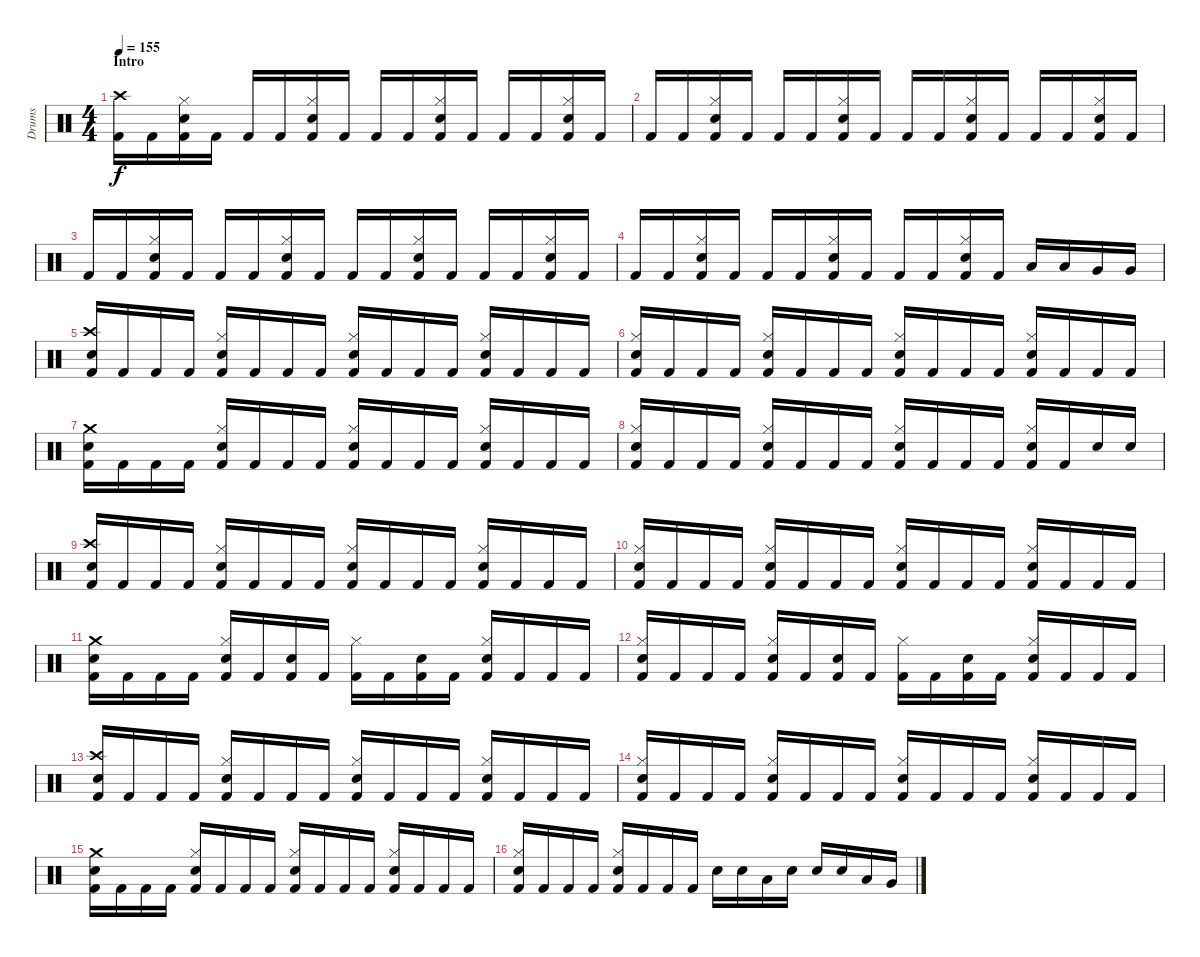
\track ("Drums" "Drums") {instrument percussion}
\staff {score}
\articulation defaults
\ts (4 4)
\section ("" "Intro")
\tempo 155
\clef neutral
\ks c
("Kick (hit) 2" "Crash high (hit)").16{dy f} "Kick (hit) 2".16 ("Kick (hit) 2" "Hi-Hat (closed)" "Electric Snare (hit)").16 "Kick (hit) 2".16 "Kick (hit) 2".16 "Kick (hit) 2".16 ("Kick (hit) 2" "Hi-Hat (closed)" "Electric Snare (hit)").16 "Kick (hit) 2".16 "Kick (hit) 2".16 "Kick (hit) 2".16 ("Kick (hit) 2" "Hi-Hat (closed)" "Electric Snare (hit)").16 "Kick (hit) 2".16 "Kick (hit) 2".16 "Kick (hit) 2".16 ("Kick (hit) 2" "Hi-Hat (closed)" "Electric Snare (hit)").16 "Kick (hit) 2".16 |
"Kick (hit) 2".16 "Kick (hit) 2".16 ("Kick (hit) 2" "Hi-Hat (closed)" "Electric Snare (hit)").16 "Kick (hit) 2".16 "Kick (hit) 2".16 "Kick (hit) 2".16 ("Kick (hit) 2" "Hi-Hat (closed)" "Electric Snare (hit)").16 "Kick (hit) 2".16 "Kick (hit) 2".16 "Kick (hit) 2".16 ("Kick (hit) 2" "Hi-Hat (closed)" "Electric Snare (hit)").16 "Kick (hit) 2".16 "Kick (hit) 2".16 "Kick (hit) 2".16 ("Kick (hit) 2" "Hi-Hat (closed)" "Electric Snare (hit)").16 "Kick (hit) 2".16 |
"Kick (hit) 2".16 "Kick (hit) 2".16 ("Kick (hit) 2" "Hi-Hat (closed)" "Electric Snare (hit)").16 "Kick (hit) 2".16 "Kick (hit) 2".16 "Kick (hit) 2".16 ("Kick (hit) 2" "Hi-Hat (closed)" "Electric Snare (hit)").16 "Kick (hit) 2".16 "Kick (hit) 2".16 "Kick (hit) 2".16 ("Kick (hit) 2" "Hi-Hat (closed)" "Electric Snare (hit)").16 "Kick (hit) 2".16 "Kick (hit) 2".16 "Kick (hit) 2".16 ("Kick (hit) 2" "Hi-Hat (closed)" "Electric Snare (hit)").16 "Kick (hit) 2".16 |
"Kick (hit) 2".16 "Kick (hit) 2".16 ("Kick (hit) 2" "Hi-Hat (closed)" "Electric Snare (hit)").16 "Kick (hit) 2".16 "Kick (hit) 2".16 "Kick (hit) 2".16 ("Kick (hit) 2" "Hi-Hat (closed)" "Electric Snare (hit)").16 "Kick (hit) 2".16 "Kick (hit) 2".16 "Kick (hit) 2".16 ("Kick (hit) 2" "Hi-Hat (closed)" "Electric Snare (hit)").16 "Kick (hit) 2".16 "Low Tom (hit)".16 "Low Tom (hit)".16 "Very Low Tom (hit)".16 "Very Low Tom (hit)".16 |
("Kick (hit) 2" "Crash high (hit)" "Electric Snare (hit)").16 "Kick (hit) 2".16 "Kick (hit) 2".16 "Kick (hit) 2".16 ("Kick (hit) 2" "Hi-Hat (closed)" "Electric Snare (hit)").16 "Kick (hit) 2".16 "Kick (hit) 2".16 "Kick (hit) 2".16 ("Kick (hit) 2" "Hi-Hat (closed)" "Electric Snare (hit)").16 "Kick (hit) 2".16 "Kick (hit) 2".16 "Kick (hit) 2".16 ("Kick (hit) 2" "Hi-Hat (closed)" "Electric Snare (hit)").16 "Kick (hit) 2".16 "Kick (hit) 2".16 "Kick (hit) 2".16 |
("Kick (hit) 2" "Hi-Hat (closed)" "Electric Snare (hit)").16 "Kick (hit) 2".16 "Kick (hit) 2".16 "Kick (hit) 2".16 ("Kick (hit) 2" "Hi-Hat (closed)" "Electric Snare (hit)").16 "Kick (hit) 2".16 "Kick (hit) 2".16 "Kick (hit) 2".16 ("Kick (hit) 2" "Hi-Hat (closed)" "Electric Snare (hit)").16 "Kick (hit) 2".16 "Kick (hit) 2".16 "Kick (hit) 2".16 ("Kick (hit) 2" "Hi-Hat (closed)" "Electric Snare (hit)").16 "Kick (hit) 2".16 "Kick (hit) 2".16 "Kick (hit) 2".16 |
("Kick (hit) 2" "Crash medium (hit)" "Electric Snare (hit)").16 "Kick (hit) 2".16 "Kick (hit) 2".16 "Kick (hit) 2".16 ("Kick (hit) 2" "Hi-Hat (closed)" "Electric Snare (hit)").16 "Kick (hit) 2".16 "Kick (hit) 2".16 "Kick (hit) 2".16 ("Kick (hit) 2" "Hi-Hat (closed)" "Electric Snare (hit)").16 "Kick (hit) 2".16 "Kick (hit) 2".16 "Kick (hit) 2".16 ("Kick (hit) 2" "Hi-Hat (closed)" "Electric Snare (hit)").16 "Kick (hit) 2".16 "Kick (hit) 2".16 "Kick (hit) 2".16 |
("Kick (hit) 2" "Hi-Hat (closed)" "Electric Snare (hit)").16 "Kick (hit) 2".16 "Kick (hit) 2".16 "Kick (hit) 2".16 ("Kick (hit) 2" "Hi-Hat (closed)" "Electric Snare (hit)").16 "Kick (hit) 2".16 "Kick (hit) 2".16 "Kick (hit) 2".16 ("Kick (hit) 2" "Hi-Hat (closed)" "Electric Snare (hit)").16 "Kick (hit) 2".16 "Kick (hit) 2".16 "Kick (hit) 2".16 ("Kick (hit) 2" "Hi-Hat (closed)" "Electric Snare (hit)").16 "Kick (hit) 2".16 "Electric Snare (hit)".16 "Electric Snare (hit)".16 |
("Kick (hit) 2" "Crash high (hit)" "Electric Snare (hit)").16 "Kick (hit) 2".16 "Kick (hit) 2".16 "Kick (hit) 2".16 ("Kick (hit) 2" "Hi-Hat (closed)" "Electric Snare (hit)").16 "Kick (hit) 2".16 "Kick (hit) 2".16 "Kick (hit) 2".16 ("Kick (hit) 2" "Hi-Hat (closed)" "Electric Snare (hit)").16 "Kick (hit) 2".16 "Kick (hit) 2".16 "Kick (hit) 2".16 ("Kick (hit) 2" "Hi-Hat (closed)" "Electric Snare (hit)").16 "Kick (hit) 2".16 "Kick (hit) 2".16 "Kick (hit) 2".16 |
("Kick (hit) 2" "Hi-Hat (closed)" "Electric Snare (hit)").16 "Kick (hit) 2".16 "Kick (hit) 2".16 "Kick (hit) 2".16 ("Kick (hit) 2" "Hi-Hat (closed)" "Electric Snare (hit)").16 "Kick (hit) 2".16 "Kick (hit) 2".16 "Kick (hit) 2".16 ("Kick (hit) 2" "Hi-Hat (closed)" "Electric Snare (hit)").16 "Kick (hit) 2".16 "Kick (hit) 2".16 "Kick (hit) 2".16 ("Kick (hit) 2" "Hi-Hat (closed)" "Electric Snare (hit)").16 "Kick (hit) 2".16 "Kick (hit) 2".16 "Kick (hit) 2".16 |
("Kick (hit) 2" "Crash medium (hit)" "Electric Snare (hit)").16 "Kick (hit) 2".16 "Kick (hit) 2".16 "Kick (hit) 2".16 ("Kick (hit) 2" "Hi-Hat (closed)" "Electric Snare (hit)").16 "Kick (hit) 2".16 ("Kick (hit) 2" "Electric Snare (hit)").16 "Kick (hit) 2".16 ("Kick (hit) 2" "Hi-Hat (closed)").16 "Kick (hit) 2".16 ("Kick (hit) 2" "Electric Snare (hit)").16 "Kick (hit) 2".16 ("Kick (hit) 2" "Hi-Hat (closed)" "Electric Snare (hit)").16 "Kick (hit) 2".16 "Kick (hit) 2".16 "Kick (hit) 2".16 |
("Kick (hit) 2" "Hi-Hat (closed)" "Electric Snare (hit)").16 "Kick (hit) 2".16 "Kick (hit) 2".16 "Kick (hit) 2".16 ("Kick (hit) 2" "Hi-Hat (closed)" "Electric Snare (hit)").16 "Kick (hit) 2".16 ("Kick (hit) 2" "Electric Snare (hit)").16 "Kick (hit) 2".16 ("Kick (hit) 2" "Hi-Hat (closed)").16 "Kick (hit) 2".16 ("Kick (hit) 2" "Electric Snare (hit)").16 "Kick (hit) 2".16 ("Kick (hit) 2" "Hi-Hat (closed)" "Electric Snare (hit)").16 "Kick (hit) 2".16 "Kick (hit) 2".16 "Kick (hit) 2".16 |
("Kick (hit) 2" "Crash high (hit)" "Electric Snare (hit)").16 "Kick (hit) 2".16 "Kick (hit) 2".16 "Kick (hit) 2".16 ("Kick (hit) 2" "Hi-Hat (closed)" "Electric Snare (hit)").16 "Kick (hit) 2".16 "Kick (hit) 2".16 "Kick (hit) 2".16 ("Kick (hit) 2" "Hi-Hat (closed)" "Electric Snare (hit)").16 "Kick (hit) 2".16 "Kick (hit) 2".16 "Kick (hit) 2".16 ("Kick (hit) 2" "Hi-Hat (closed)" "Electric Snare (hit)").16 "Kick (hit) 2".16 "Kick (hit) 2".16 "Kick (hit) 2".16 |
("Kick (hit) 2" "Hi-Hat (closed)" "Electric Snare (hit)").16 "Kick (hit) 2".16 "Kick (hit) 2".16 "Kick (hit) 2".16 ("Kick (hit) 2" "Hi-Hat (closed)" "Electric Snare (hit)").16 "Kick (hit) 2".16 "Kick (hit) 2".16 "Kick (hit) 2".16 ("Kick (hit) 2" "Hi-Hat (closed)" "Electric Snare (hit)").16 "Kick (hit) 2".16 "Kick (hit) 2".16 "Kick (hit) 2".16 ("Kick (hit) 2" "Hi-Hat (closed)" "Electric Snare (hit)").16 "Kick (hit) 2".16 "Kick (hit) 2".16 "Kick (hit) 2".16 |
("Kick (hit) 2" "Crash medium (hit)" "Electric Snare (hit)").16 "Kick (hit) 2".16 "Kick (hit) 2".16 "Kick (hit) 2".16 ("Kick (hit) 2" "Hi-Hat (closed)" "Electric Snare (hit)").16 "Kick (hit) 2".16 "Kick (hit) 2".16 "Kick (hit) 2".16 ("Kick (hit) 2" "Hi-Hat (closed)" "Electric Snare (hit)").16 "Kick (hit) 2".16 "Kick (hit) 2".16 "Kick (hit) 2".16 ("Kick (hit) 2" "Hi-Hat (closed)" "Electric Snare (hit)").16 "Kick (hit) 2".16 "Kick (hit) 2".16 "Kick (hit) 2".16 |
("Kick (hit) 2" "Hi-Hat (closed)" "Electric Snare (hit)").16 "Kick (hit) 2".16 "Kick (hit) 2".16 "Kick (hit) 2".16 ("Kick (hit) 2" "Hi-Hat (closed)" "Electric Snare (hit)").16 "Kick (hit) 2".16 "Kick (hit) 2".16 "Kick (hit) 2".16 "Electric Snare (hit)".16 "Electric Snare (hit)".16 "Low Tom (hit)".16 "Electric Snare (hit)".16 "Electric Snare (hit)".16 "Electric Snare (hit)".16 "Low Tom (hit)".16 "Very Low Tom (hit)".16
